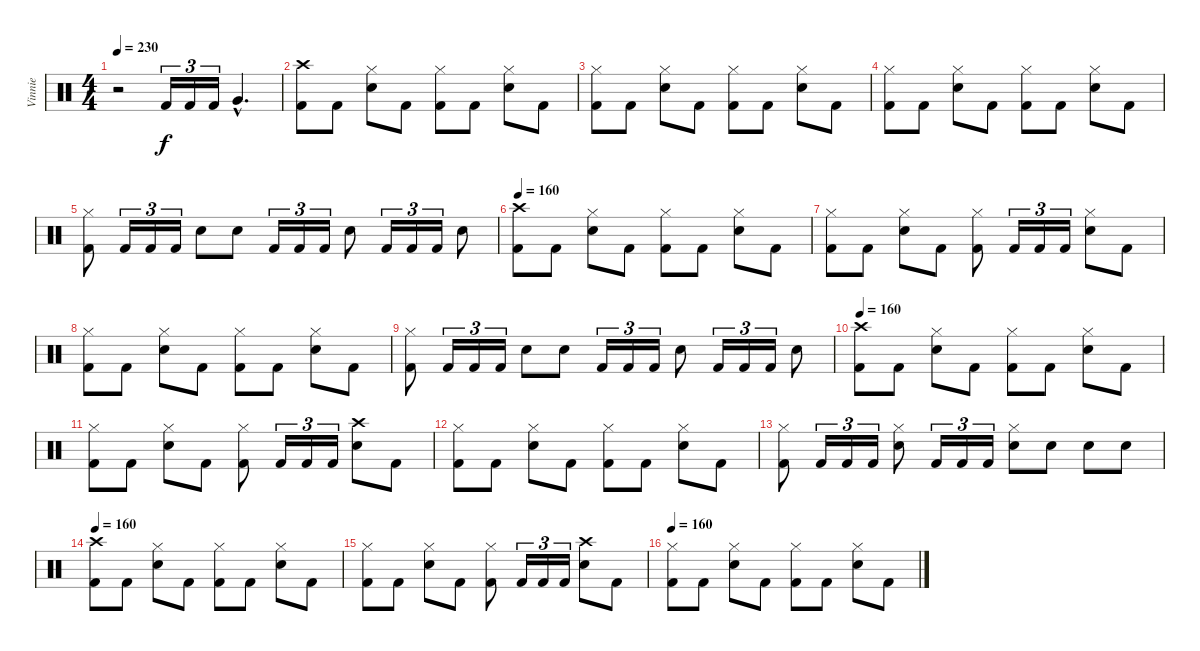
\track ("Vinnie" "Vinnie") {instrument percussion}
\staff {score}
\articulation defaults
\ts (4 4)
\tempo 230
\tempo 160
\tempo 230
\clef neutral
\ks c
r.2{dy f} "Kick (hit) 2".16{tu (3 2)} "Kick (hit) 2".16{tu (3 2)} "Kick (hit) 2".16{tu (3 2)} "Very Low Tom (hit)"{hac}.4{d} |
("Crash high (hit)" "Kick (hit) 2").8 "Kick (hit) 2".8 ("Hi-Hat (closed)" "Electric Snare (hit)").8 "Kick (hit) 2".8 ("Hi-Hat (closed)" "Kick (hit) 2").8 "Kick (hit) 2".8 ("Hi-Hat (closed)" "Electric Snare (hit)").8 "Kick (hit) 2".8 |
("Hi-Hat (closed)" "Kick (hit) 2").8 "Kick (hit) 2".8 ("Hi-Hat (closed)" "Electric Snare (hit)").8 "Kick (hit) 2".8 ("Hi-Hat (closed)" "Kick (hit) 2").8 "Kick (hit) 2".8 ("Hi-Hat (closed)" "Electric Snare (hit)").8 "Kick (hit) 2".8 |
("Hi-Hat (closed)" "Kick (hit) 2").8 "Kick (hit) 2".8 ("Hi-Hat (closed)" "Electric Snare (hit)").8 "Kick (hit) 2".8 ("Hi-Hat (closed)" "Kick (hit) 2").8 "Kick (hit) 2".8 ("Hi-Hat (closed)" "Electric Snare (hit)").8 "Kick (hit) 2".8 |
("Hi-Hat (closed)" "Kick (hit) 2").8 "Kick (hit) 2".16{tu (3 2)} "Kick (hit) 2".16{tu (3 2)} "Kick (hit) 2".16{tu (3 2)} "Electric Snare (hit)".8 "Electric Snare (hit)".8 "Kick (hit) 2".16{tu (3 2)} "Kick (hit) 2".16{tu (3 2)} "Kick (hit) 2".16{tu (3 2)} "Electric Snare (hit)".8 "Kick (hit) 2".16{tu (3 2)} "Kick (hit) 2".16{tu (3 2)} "Kick (hit) 2".16{tu (3 2)} "Electric Snare (hit)".8 |
\tempo 160
("Crash high (hit)" "Kick (hit) 2").8 "Kick (hit) 2".8 ("Hi-Hat (closed)" "Electric Snare (hit)").8 "Kick (hit) 2".8 ("Hi-Hat (closed)" "Kick (hit) 2").8 "Kick (hit) 2".8 ("Hi-Hat (closed)" "Electric Snare (hit)").8 "Kick (hit) 2".8 |
("Hi-Hat (closed)" "Kick (hit) 2").8 "Kick (hit) 2".8 ("Hi-Hat (closed)" "Electric Snare (hit)").8 "Kick (hit) 2".8 ("Hi-Hat (closed)" "Kick (hit) 2").8 "Kick (hit) 2".16{tu (3 2)} "Kick (hit) 2".16{tu (3 2)} "Kick (hit) 2".16{tu (3 2)} ("Hi-Hat (closed)" "Electric Snare (hit)").8 "Kick (hit) 2".8 |
("Hi-Hat (closed)" "Kick (hit) 2").8 "Kick (hit) 2".8 ("Hi-Hat (closed)" "Electric Snare (hit)").8 "Kick (hit) 2".8 ("Hi-Hat (closed)" "Kick (hit) 2").8 "Kick (hit) 2".8 ("Hi-Hat (closed)" "Electric Snare (hit)").8 "Kick (hit) 2".8 |
("Hi-Hat (closed)" "Kick (hit) 2").8 "Kick (hit) 2".16{tu (3 2)} "Kick (hit) 2".16{tu (3 2)} "Kick (hit) 2".16{tu (3 2)} "Electric Snare (hit)".8 "Electric Snare (hit)".8 "Kick (hit) 2".16{tu (3 2)} "Kick (hit) 2".16{tu (3 2)} "Kick (hit) 2".16{tu (3 2)} "Electric Snare (hit)".8 "Kick (hit) 2".16{tu (3 2)} "Kick (hit) 2".16{tu (3 2)} "Kick (hit) 2".16{tu (3 2)} "Electric Snare (hit)".8 |
\tempo 160
("Crash high (hit)" "Kick (hit) 2").8 "Kick (hit) 2".8 ("Hi-Hat (closed)" "Electric Snare (hit)").8 "Kick (hit) 2".8 ("Hi-Hat (closed)" "Kick (hit) 2").8 "Kick (hit) 2".8 ("Hi-Hat (closed)" "Electric Snare (hit)").8 "Kick (hit) 2".8 |
("Hi-Hat (closed)" "Kick (hit) 2").8 "Kick (hit) 2".8 ("Hi-Hat (closed)" "Electric Snare (hit)").8 "Kick (hit) 2".8 ("Hi-Hat (closed)" "Kick (hit) 2").8 "Kick (hit) 2".16{tu (3 2)} "Kick (hit) 2".16{tu (3 2)} "Kick (hit) 2".16{tu (3 2)} ("Crash high (hit)" "Electric Snare (hit)").8 "Kick (hit) 2".8 |
("Hi-Hat (closed)" "Kick (hit) 2").8 "Kick (hit) 2".8 ("Hi-Hat (closed)" "Electric Snare (hit)").8 "Kick (hit) 2".8 ("Hi-Hat (closed)" "Kick (hit) 2").8 "Kick (hit) 2".8 ("Hi-Hat (closed)" "Electric Snare (hit)").8 "Kick (hit) 2".8 |
("Hi-Hat (closed)" "Kick (hit) 2").8 "Kick (hit) 2".16{tu (3 2)} "Kick (hit) 2".16{tu (3 2)} "Kick (hit) 2".16{tu (3 2)} ("Hi-Hat (closed)" "Electric Snare (hit)").8 "Kick (hit) 2".16{tu (3 2)} "Kick (hit) 2".16{tu (3 2)} "Kick (hit) 2".16{tu (3 2)} ("Hi-Hat (closed)" "Electric Snare (hit)").8 "Electric Snare (hit)".8 "Electric Snare (hit)".8 "Electric Snare (hit)".8 |
\tempo 160
("Crash high (hit)" "Kick (hit) 2").8 "Kick (hit) 2".8 ("Hi-Hat (closed)" "Electric Snare (hit)").8 "Kick (hit) 2".8 ("Hi-Hat (closed)" "Kick (hit) 2").8 "Kick (hit) 2".8 ("Hi-Hat (closed)" "Electric Snare (hit)").8 "Kick (hit) 2".8 |
("Hi-Hat (closed)" "Kick (hit) 2").8 "Kick (hit) 2".8 ("Hi-Hat (closed)" "Electric Snare (hit)").8 "Kick (hit) 2".8 ("Hi-Hat (closed)" "Kick (hit) 2").8 "Kick (hit) 2".16{tu (3 2)} "Kick (hit) 2".16{tu (3 2)} "Kick (hit) 2".16{tu (3 2)} ("Crash high (hit)" "Electric Snare (hit)").8 "Kick (hit) 2".8 |
\tempo 160
("Hi-Hat (closed)" "Kick (hit) 2").8 "Kick (hit) 2".8 ("Hi-Hat (closed)" "Electric Snare (hit)").8 "Kick (hit) 2".8 ("Hi-Hat (closed)" "Kick (hit) 2").8 "Kick (hit) 2".8 ("Hi-Hat (closed)" "Electric Snare (hit)").8 "Kick (hit) 2".8
